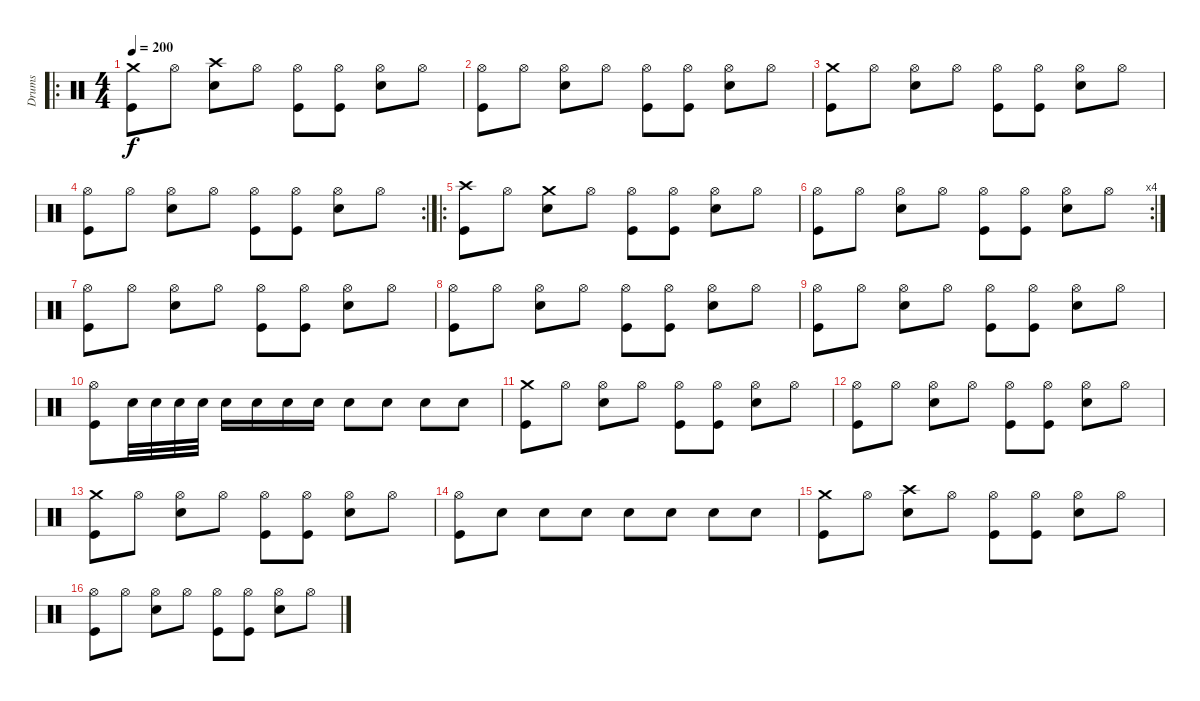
\track ("Drums" "Drums") {instrument percussion}
\staff {score}
\articulation defaults
\ro
\ts (4 4)
\tempo 200
\clef neutral
\ks c
("Crash medium (hit)" "Kick (hit)").8{dy f} "Hi-Hat (open)".8 ("Crash high (hit)" "Snare (hit) 2").8 "Hi-Hat (open)".8 ("Hi-Hat (open)" "Kick (hit)").8 ("Hi-Hat (open)" "Kick (hit)").8 ("Hi-Hat (open)" "Snare (hit) 2").8 "Hi-Hat (open)".8 |
("Hi-Hat (open)" "Kick (hit)").8 "Hi-Hat (open)".8 ("Hi-Hat (open)" "Snare (hit) 2").8 "Hi-Hat (open)".8 ("Hi-Hat (open)" "Kick (hit)").8 ("Hi-Hat (open)" "Kick (hit)").8 ("Hi-Hat (open)" "Snare (hit) 2").8 "Hi-Hat (open)".8 |
("Crash medium (hit)" "Kick (hit)").8 "Hi-Hat (open)".8 ("Hi-Hat (open)" "Snare (hit) 2").8 "Hi-Hat (open)".8 ("Hi-Hat (open)" "Kick (hit)").8 ("Hi-Hat (open)" "Kick (hit)").8 ("Hi-Hat (open)" "Snare (hit) 2").8 "Hi-Hat (open)".8 |
\rc 2
("Hi-Hat (open)" "Kick (hit)").8 "Hi-Hat (open)".8 ("Hi-Hat (open)" "Snare (hit) 2").8 "Hi-Hat (open)".8 ("Hi-Hat (open)" "Kick (hit)").8 ("Hi-Hat (open)" "Kick (hit)").8 ("Hi-Hat (open)" "Snare (hit) 2").8 "Hi-Hat (open)".8 |
\ro
("Crash high (hit)" "Kick (hit)").8 "Hi-Hat (open)".8 ("Crash medium (hit)" "Snare (hit) 2").8 "Hi-Hat (open)".8 ("Hi-Hat (open)" "Kick (hit)").8 ("Hi-Hat (open)" "Kick (hit)").8 ("Hi-Hat (open)" "Snare (hit) 2").8 "Hi-Hat (open)".8 |
\rc 4
("Hi-Hat (open)" "Kick (hit)").8 "Hi-Hat (open)".8 ("Hi-Hat (open)" "Snare (hit) 2").8 "Hi-Hat (open)".8 ("Hi-Hat (open)" "Kick (hit)").8 ("Hi-Hat (open)" "Kick (hit)").8 ("Hi-Hat (open)" "Snare (hit) 2").8 "Hi-Hat (open)".8 |
("Hi-Hat (open)" "Kick (hit)").8 "Hi-Hat (open)".8 ("Hi-Hat (open)" "Snare (hit) 2").8 "Hi-Hat (open)".8 ("Hi-Hat (open)" "Kick (hit)").8 ("Hi-Hat (open)" "Kick (hit)").8 ("Hi-Hat (open)" "Snare (hit) 2").8 "Hi-Hat (open)".8 |
("Hi-Hat (open)" "Kick (hit)").8 "Hi-Hat (open)".8 ("Hi-Hat (open)" "Snare (hit) 2").8 "Hi-Hat (open)".8 ("Hi-Hat (open)" "Kick (hit)").8 ("Hi-Hat (open)" "Kick (hit)").8 ("Hi-Hat (open)" "Snare (hit) 2").8 "Hi-Hat (open)".8 |
("Hi-Hat (open)" "Kick (hit)").8 "Hi-Hat (open)".8 ("Hi-Hat (open)" "Snare (hit) 2").8 "Hi-Hat (open)".8 ("Hi-Hat (open)" "Kick (hit)").8 ("Hi-Hat (open)" "Kick (hit)").8 ("Hi-Hat (open)" "Snare (hit) 2").8 "Hi-Hat (open)".8 |
("Hi-Hat (open)" "Kick (hit)").8 "Snare (hit) 2".32 "Snare (hit) 2".32 "Snare (hit) 2".32 "Snare (hit) 2".32 "Snare (hit) 2".16 "Snare (hit) 2".16 "Snare (hit) 2".16 "Snare (hit) 2".16 "Snare (hit) 2".8 "Snare (hit) 2".8 "Snare (hit) 2".8 "Snare (hit) 2".8 |
("Crash medium (hit)" "Kick (hit)").8 "Hi-Hat (open)".8 ("Hi-Hat (open)" "Snare (hit) 2").8 "Hi-Hat (open)".8 ("Hi-Hat (open)" "Kick (hit)").8 ("Hi-Hat (open)" "Kick (hit)").8 ("Hi-Hat (open)" "Snare (hit) 2").8 "Hi-Hat (open)".8 |
("Hi-Hat (open)" "Kick (hit)").8 "Hi-Hat (open)".8 ("Hi-Hat (open)" "Snare (hit) 2").8 "Hi-Hat (open)".8 ("Hi-Hat (open)" "Kick (hit)").8 ("Hi-Hat (open)" "Kick (hit)").8 ("Hi-Hat (open)" "Snare (hit) 2").8 "Hi-Hat (open)".8 |
("Crash medium (hit)" "Kick (hit)").8 "Hi-Hat (open)".8 ("Hi-Hat (open)" "Snare (hit) 2").8 "Hi-Hat (open)".8 ("Hi-Hat (open)" "Kick (hit)").8 ("Hi-Hat (open)" "Kick (hit)").8 ("Hi-Hat (open)" "Snare (hit) 2").8 "Hi-Hat (open)".8 |
("Hi-Hat (open)" "Kick (hit)").8 "Snare (hit) 2".8 "Snare (hit) 2".8 "Snare (hit) 2".8 "Snare (hit) 2".8 "Snare (hit) 2".8 "Snare (hit) 2".8 "Snare (hit) 2".8 |
("Crash medium (hit)" "Kick (hit)").8 "Hi-Hat (open)".8 ("Crash high (hit)" "Snare (hit) 2").8 "Hi-Hat (open)".8 ("Hi-Hat (open)" "Kick (hit)").8 ("Hi-Hat (open)" "Kick (hit)").8 ("Hi-Hat (open)" "Snare (hit) 2").8 "Hi-Hat (open)".8 |
("Hi-Hat (open)" "Kick (hit)").8 "Hi-Hat (open)".8 ("Hi-Hat (open)" "Snare (hit) 2").8 "Hi-Hat (open)".8 ("Hi-Hat (open)" "Kick (hit)").8 ("Hi-Hat (open)" "Kick (hit)").8 ("Hi-Hat (open)" "Snare (hit) 2").8 "Hi-Hat (open)".8
